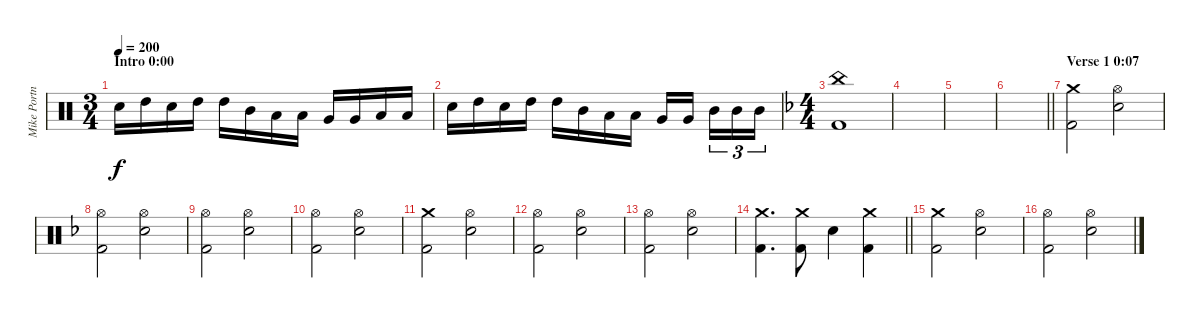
\track ("Mike Portnoy (Drums)" "Mike Portn") {instrument percussion}
\staff {score}
\articulation defaults
\ts (3 4)
\section ("" "Intro 0:00")
\tempo 200
\clef neutral
\ks c "Electric Snare (hit)".16{dy f} "High Tom (hit)".16 "Electric Snare (hit)".16 "High Tom (hit)".16 "High Tom (hit)".16 "Mid Tom (hit)".16 "Low Floor Tom (hit)".16 "Low Tom (hit)".16 "Very Low Tom (hit)".16 "Very Low Tom (hit)".16 "Low Floor Tom (hit)".16 "Low Floor Tom (hit)".16
|
"Electric Snare (hit)".16 "High Tom (hit)".16 "Electric Snare (hit)".16 "High Tom (hit)".16 "High Tom (hit)".16 "Mid Tom (hit)".16 "Low Floor Tom (hit)".16 "Low Tom (hit)".16 "Very Low Tom (hit)".16 "Very Low Tom (hit)".16{beam splitsecondary} "Mid Tom (hit)".16{tu (3 2)} "Mid Tom (hit)".16{tu (3 2)} "Mid Tom (hit)".16{tu (3 2)} |
\ts (4 4)
\ks f
("China (hit)" "Kick (hit) 2").1 |
|
|
\barLineRight lightlight
|
\section ("" "Verse 1 0:07")
("Crash medium (hit)" "Kick (hit) 2").2 ("Hi-Hat (open)" "Electric Snare (hit)").2 |
("Hi-Hat (open)" "Kick (hit) 2").2 ("Hi-Hat (open)" "Electric Snare (hit)").2 |
("Hi-Hat (open)" "Kick (hit) 2").2 ("Hi-Hat (open)" "Electric Snare (hit)").2 |
("Hi-Hat (open)" "Kick (hit) 2").2 ("Hi-Hat (open)" "Electric Snare (hit)").2 |
("Crash medium (hit)" "Kick (hit) 2").2 ("Hi-Hat (open)" "Electric Snare (hit)").2 |
("Hi-Hat (open)" "Kick (hit) 2").2 ("Hi-Hat (open)" "Electric Snare (hit)").2 |
("Hi-Hat (open)" "Kick (hit) 2").2 ("Hi-Hat (open)" "Electric Snare (hit)").2 |
\barLineRight lightlight
("Crash medium (hit)" "Kick (hit) 2").4{d} ("Crash medium (hit)" "Kick (hit) 2").8 "Electric Snare (hit)".4 ("Crash medium (hit)" "Kick (hit) 2").4 |
\section ("" "")
("Crash medium (hit)" "Kick (hit) 2").2 ("Hi-Hat (open)" "Electric Snare (hit)").2 |
("Hi-Hat (open)" "Kick (hit) 2").2 ("Hi-Hat (open)" "Electric Snare (hit)").2
